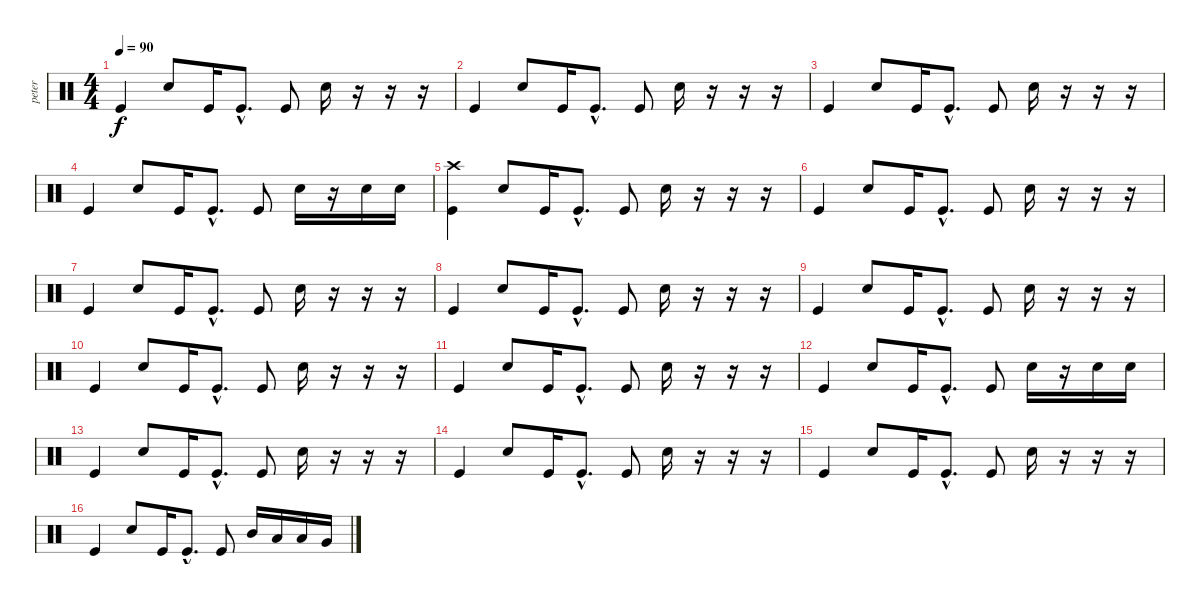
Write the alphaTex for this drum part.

\track ("peter" "peter") {instrument percussion}
\staff {score}
\articulation defaults
\ts (4 4)
\tempo 90
\clef neutral
\ks c "Kick (hit)".4{dy f} "Electric Snare (hit)".8 "Kick (hit)".16 "Kick (hit)"{hac}.8{d} "Kick (hit)".8 "Electric Snare (hit)".16
r.16 r.16 r.16 |
"Kick (hit)".4 "Electric Snare (hit)".8 "Kick (hit)".16 "Kick (hit)"{hac}.8{d} "Kick (hit)".8 "Electric Snare (hit)".16 r.16 r.16 r.16 |
"Kick (hit)".4 "Electric Snare (hit)".8 "Kick (hit)".16 "Kick (hit)"{hac}.8{d} "Kick (hit)".8 "Electric Snare (hit)".16 r.16 r.16 r.16 |
"Kick (hit)".4 "Electric Snare (hit)".8 "Kick (hit)".16 "Kick (hit)"{hac}.8{d} "Kick (hit)".8 "Electric Snare (hit)".16 r.16 "Electric Snare (hit)".16 "Electric Snare (hit)".16 |
("Crash high (hit)" "Kick (hit)").4 "Electric Snare (hit)".8 "Kick (hit)".16 "Kick (hit)"{hac}.8{d} "Kick (hit)".8 "Electric Snare (hit)".16 r.16 r.16 r.16 |
"Kick (hit)".4 "Electric Snare (hit)".8 "Kick (hit)".16 "Kick (hit)"{hac}.8{d} "Kick (hit)".8 "Electric Snare (hit)".16 r.16 r.16 r.16 |
"Kick (hit)".4 "Electric Snare (hit)".8 "Kick (hit)".16 "Kick (hit)"{hac}.8{d} "Kick (hit)".8 "Electric Snare (hit)".16 r.16 r.16 r.16 |
"Kick (hit)".4 "Electric Snare (hit)".8 "Kick (hit)".16 "Kick (hit)"{hac}.8{d} "Kick (hit)".8 "Electric Snare (hit)".16 r.16 r.16 r.16 |
"Kick (hit)".4 "Electric Snare (hit)".8 "Kick (hit)".16 "Kick (hit)"{hac}.8{d} "Kick (hit)".8 "Electric Snare (hit)".16 r.16 r.16 r.16 |
"Kick (hit)".4 "Electric Snare (hit)".8 "Kick (hit)".16 "Kick (hit)"{hac}.8{d} "Kick (hit)".8 "Electric Snare (hit)".16 r.16 r.16 r.16 |
"Kick (hit)".4 "Electric Snare (hit)".8 "Kick (hit)".16 "Kick (hit)"{hac}.8{d} "Kick (hit)".8 "Electric Snare (hit)".16 r.16 r.16 r.16 |
"Kick (hit)".4 "Electric Snare (hit)".8 "Kick (hit)".16 "Kick (hit)"{hac}.8{d} "Kick (hit)".8 "Electric Snare (hit)".16 r.16 "Electric Snare (hit)".16 "Electric Snare (hit)".16 |
"Kick (hit)".4 "Electric Snare (hit)".8 "Kick (hit)".16 "Kick (hit)"{hac}.8{d} "Kick (hit)".8 "Electric Snare (hit)".16 r.16 r.16 r.16 |
"Kick (hit)".4 "Electric Snare (hit)".8 "Kick (hit)".16 "Kick (hit)"{hac}.8{d} "Kick (hit)".8 "Electric Snare (hit)".16 r.16 r.16 r.16 |
"Kick (hit)".4 "Electric Snare (hit)".8 "Kick (hit)".16 "Kick (hit)"{hac}.8{d} "Kick (hit)".8 "Electric Snare (hit)".16 r.16 r.16 r.16 |
"Kick (hit)".4 "Electric Snare (hit)".8 "Kick (hit)".16 "Kick (hit)"{hac}.8{d} "Kick (hit)".8 "Mid Tom (hit)".16 "Low Tom (hit)".16 "Low Tom (hit)".16 "Very Low Tom (hit)".16
